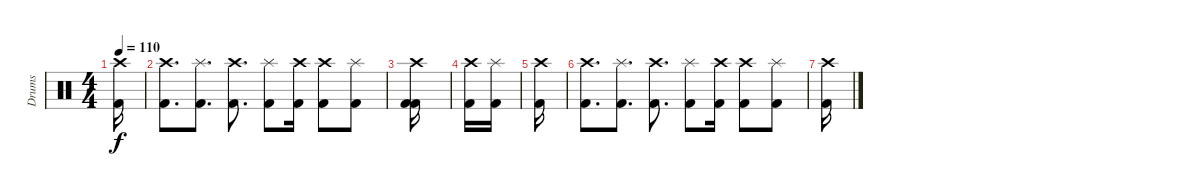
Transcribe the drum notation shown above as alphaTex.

\track ("Drums" "Drums") {mute instrument percussion}
\staff {score}
\articulation defaults
\ts (4 4)
\tempo 110
\clef neutral
\ks c
("Kick (hit) 2" "Crash high (hit)").16{dy f} |
("Kick (hit) 2" "Crash high (hit)").8{d} ("Kick (hit) 2" "Splash (hit)").8{d} ("Kick (hit) 2" "Crash high (hit)").8{d} ("Kick (hit) 2" "Splash (hit)").8 ("Kick (hit) 2" "Crash high (hit)").16 ("Kick (hit) 2" "Crash high (hit)").8 ("Kick (hit) 2" "Splash (hit)").8 |
("Kick (hit) 2" "Kick (hit) 2" "Crash high (hit)").16 |
("Kick (hit) 2" "Crash high (hit)").16 ("Kick (hit) 2" "Splash (hit)").16 |
("Kick (hit) 2" "Crash high (hit)").16 |
("Kick (hit) 2" "Crash high (hit)").8{d} ("Kick (hit) 2" "Splash (hit)").8{d} ("Kick (hit) 2" "Crash high (hit)").8{d} ("Kick (hit) 2" "Splash (hit)").8 ("Kick (hit) 2" "Crash high (hit)").16 ("Kick (hit) 2" "Crash high (hit)").8 ("Kick (hit) 2" "Splash (hit)").8 |
("Kick (hit) 2" "Crash high (hit)").16
